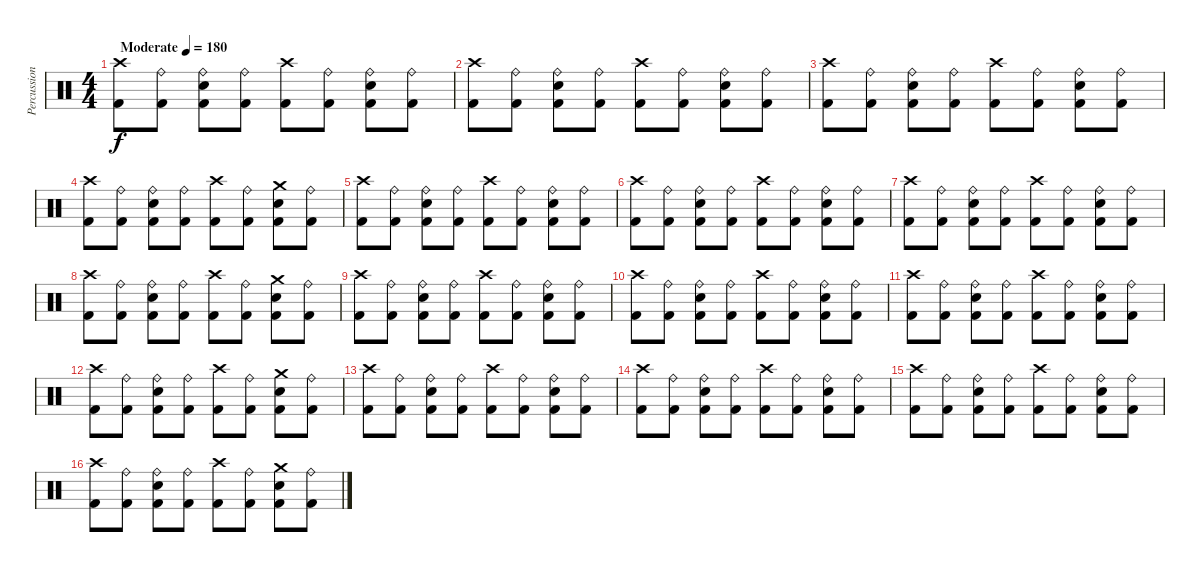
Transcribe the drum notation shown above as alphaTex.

\track ("Percussion" "Percussion") {mute instrument percussion}
\staff {score}
\articulation defaults
\ts (4 4)
\tempo (180 "Moderate")
\clef neutral
\ks c
("Crash high (hit)" "Kick (hit) 2").8{dy f} ("Ride (bell)" "Kick (hit) 2").8 ("Ride (bell)" "Electric Snare (hit)" "Kick (hit) 2").8 ("Ride (bell)" "Kick (hit) 2").8 ("Crash high (hit)" "Kick (hit) 2").8 ("Ride (bell)" "Kick (hit) 2").8 ("Ride (bell)" "Electric Snare (hit)" "Kick (hit) 2").8 ("Ride (bell)" "Kick (hit) 2").8 |
("Crash high (hit)" "Kick (hit) 2").8 ("Ride (bell)" "Kick (hit) 2").8 ("Ride (bell)" "Electric Snare (hit)" "Kick (hit) 2").8 ("Ride (bell)" "Kick (hit) 2").8 ("Crash high (hit)" "Kick (hit) 2").8 ("Ride (bell)" "Kick (hit) 2").8 ("Ride (bell)" "Electric Snare (hit)" "Kick (hit) 2").8 ("Ride (bell)" "Kick (hit) 2").8 |
("Crash high (hit)" "Kick (hit) 2").8 ("Ride (bell)" "Kick (hit) 2").8 ("Ride (bell)" "Electric Snare (hit)" "Kick (hit) 2").8 ("Ride (bell)" "Kick (hit) 2").8 ("Crash high (hit)" "Kick (hit) 2").8 ("Ride (bell)" "Kick (hit) 2").8 ("Ride (bell)" "Electric Snare (hit)" "Kick (hit) 2").8 ("Ride (bell)" "Kick (hit) 2").8 |
("Crash high (hit)" "Kick (hit) 2").8 ("Ride (bell)" "Kick (hit) 2").8 ("Ride (bell)" "Electric Snare (hit)" "Kick (hit) 2").8 ("Ride (bell)" "Kick (hit) 2").8 ("Crash high (hit)" "Kick (hit) 2").8 ("Ride (bell)" "Kick (hit) 2").8 ("Crash medium (hit)" "Electric Snare (hit)" "Kick (hit) 2").8 ("Ride (bell)" "Kick (hit) 2").8 |
("Crash high (hit)" "Kick (hit) 2").8 ("Ride (bell)" "Kick (hit) 2").8 ("Ride (bell)" "Electric Snare (hit)" "Kick (hit) 2").8 ("Ride (bell)" "Kick (hit) 2").8 ("Crash high (hit)" "Kick (hit) 2").8 ("Ride (bell)" "Kick (hit) 2").8 ("Ride (bell)" "Electric Snare (hit)" "Kick (hit) 2").8 ("Ride (bell)" "Kick (hit) 2").8 |
("Crash high (hit)" "Kick (hit) 2").8 ("Ride (bell)" "Kick (hit) 2").8 ("Ride (bell)" "Electric Snare (hit)" "Kick (hit) 2").8 ("Ride (bell)" "Kick (hit) 2").8 ("Crash high (hit)" "Kick (hit) 2").8 ("Ride (bell)" "Kick (hit) 2").8 ("Ride (bell)" "Electric Snare (hit)" "Kick (hit) 2").8 ("Ride (bell)" "Kick (hit) 2").8 |
("Crash high (hit)" "Kick (hit) 2").8 ("Ride (bell)" "Kick (hit) 2").8 ("Ride (bell)" "Electric Snare (hit)" "Kick (hit) 2").8 ("Ride (bell)" "Kick (hit) 2").8 ("Crash high (hit)" "Kick (hit) 2").8 ("Ride (bell)" "Kick (hit) 2").8 ("Ride (bell)" "Electric Snare (hit)" "Kick (hit) 2").8 ("Ride (bell)" "Kick (hit) 2").8 |
("Crash high (hit)" "Kick (hit) 2").8 ("Ride (bell)" "Kick (hit) 2").8 ("Ride (bell)" "Electric Snare (hit)" "Kick (hit) 2").8 ("Ride (bell)" "Kick (hit) 2").8 ("Crash high (hit)" "Kick (hit) 2").8 ("Ride (bell)" "Kick (hit) 2").8 ("Crash medium (hit)" "Electric Snare (hit)" "Kick (hit) 2").8 ("Ride (bell)" "Kick (hit) 2").8 |
("Crash high (hit)" "Kick (hit) 2").8 ("Ride (bell)" "Kick (hit) 2").8 ("Ride (bell)" "Electric Snare (hit)" "Kick (hit) 2").8 ("Ride (bell)" "Kick (hit) 2").8 ("Crash high (hit)" "Kick (hit) 2").8 ("Ride (bell)" "Kick (hit) 2").8 ("Ride (bell)" "Electric Snare (hit)" "Kick (hit) 2").8 ("Ride (bell)" "Kick (hit) 2").8 |
("Crash high (hit)" "Kick (hit) 2").8 ("Ride (bell)" "Kick (hit) 2").8 ("Ride (bell)" "Electric Snare (hit)" "Kick (hit) 2").8 ("Ride (bell)" "Kick (hit) 2").8 ("Crash high (hit)" "Kick (hit) 2").8 ("Ride (bell)" "Kick (hit) 2").8 ("Ride (bell)" "Electric Snare (hit)" "Kick (hit) 2").8 ("Ride (bell)" "Kick (hit) 2").8 |
("Crash high (hit)" "Kick (hit) 2").8 ("Ride (bell)" "Kick (hit) 2").8 ("Ride (bell)" "Electric Snare (hit)" "Kick (hit) 2").8 ("Ride (bell)" "Kick (hit) 2").8 ("Crash high (hit)" "Kick (hit) 2").8 ("Ride (bell)" "Kick (hit) 2").8 ("Ride (bell)" "Electric Snare (hit)" "Kick (hit) 2").8 ("Ride (bell)" "Kick (hit) 2").8 |
("Crash high (hit)" "Kick (hit) 2").8 ("Ride (bell)" "Kick (hit) 2").8 ("Ride (bell)" "Electric Snare (hit)" "Kick (hit) 2").8 ("Ride (bell)" "Kick (hit) 2").8 ("Crash high (hit)" "Kick (hit) 2").8 ("Ride (bell)" "Kick (hit) 2").8 ("Crash medium (hit)" "Electric Snare (hit)" "Kick (hit) 2").8 ("Ride (bell)" "Kick (hit) 2").8 |
("Crash high (hit)" "Kick (hit) 2").8 ("Ride (bell)" "Kick (hit) 2").8 ("Ride (bell)" "Electric Snare (hit)" "Kick (hit) 2").8 ("Ride (bell)" "Kick (hit) 2").8 ("Crash high (hit)" "Kick (hit) 2").8 ("Ride (bell)" "Kick (hit) 2").8 ("Ride (bell)" "Electric Snare (hit)" "Kick (hit) 2").8 ("Ride (bell)" "Kick (hit) 2").8 |
("Crash high (hit)" "Kick (hit) 2").8 ("Ride (bell)" "Kick (hit) 2").8 ("Ride (bell)" "Electric Snare (hit)" "Kick (hit) 2").8 ("Ride (bell)" "Kick (hit) 2").8 ("Crash high (hit)" "Kick (hit) 2").8 ("Ride (bell)" "Kick (hit) 2").8 ("Ride (bell)" "Electric Snare (hit)" "Kick (hit) 2").8 ("Ride (bell)" "Kick (hit) 2").8 |
("Crash high (hit)" "Kick (hit) 2").8 ("Ride (bell)" "Kick (hit) 2").8 ("Ride (bell)" "Electric Snare (hit)" "Kick (hit) 2").8 ("Ride (bell)" "Kick (hit) 2").8 ("Crash high (hit)" "Kick (hit) 2").8 ("Ride (bell)" "Kick (hit) 2").8 ("Ride (bell)" "Electric Snare (hit)" "Kick (hit) 2").8 ("Ride (bell)" "Kick (hit) 2").8 |
("Crash high (hit)" "Kick (hit) 2").8 ("Ride (bell)" "Kick (hit) 2").8 ("Ride (bell)" "Electric Snare (hit)" "Kick (hit) 2").8 ("Ride (bell)" "Kick (hit) 2").8 ("Crash high (hit)" "Kick (hit) 2").8 ("Ride (bell)" "Kick (hit) 2").8 ("Crash medium (hit)" "Electric Snare (hit)" "Kick (hit) 2").8 ("Ride (bell)" "Kick (hit) 2").8
